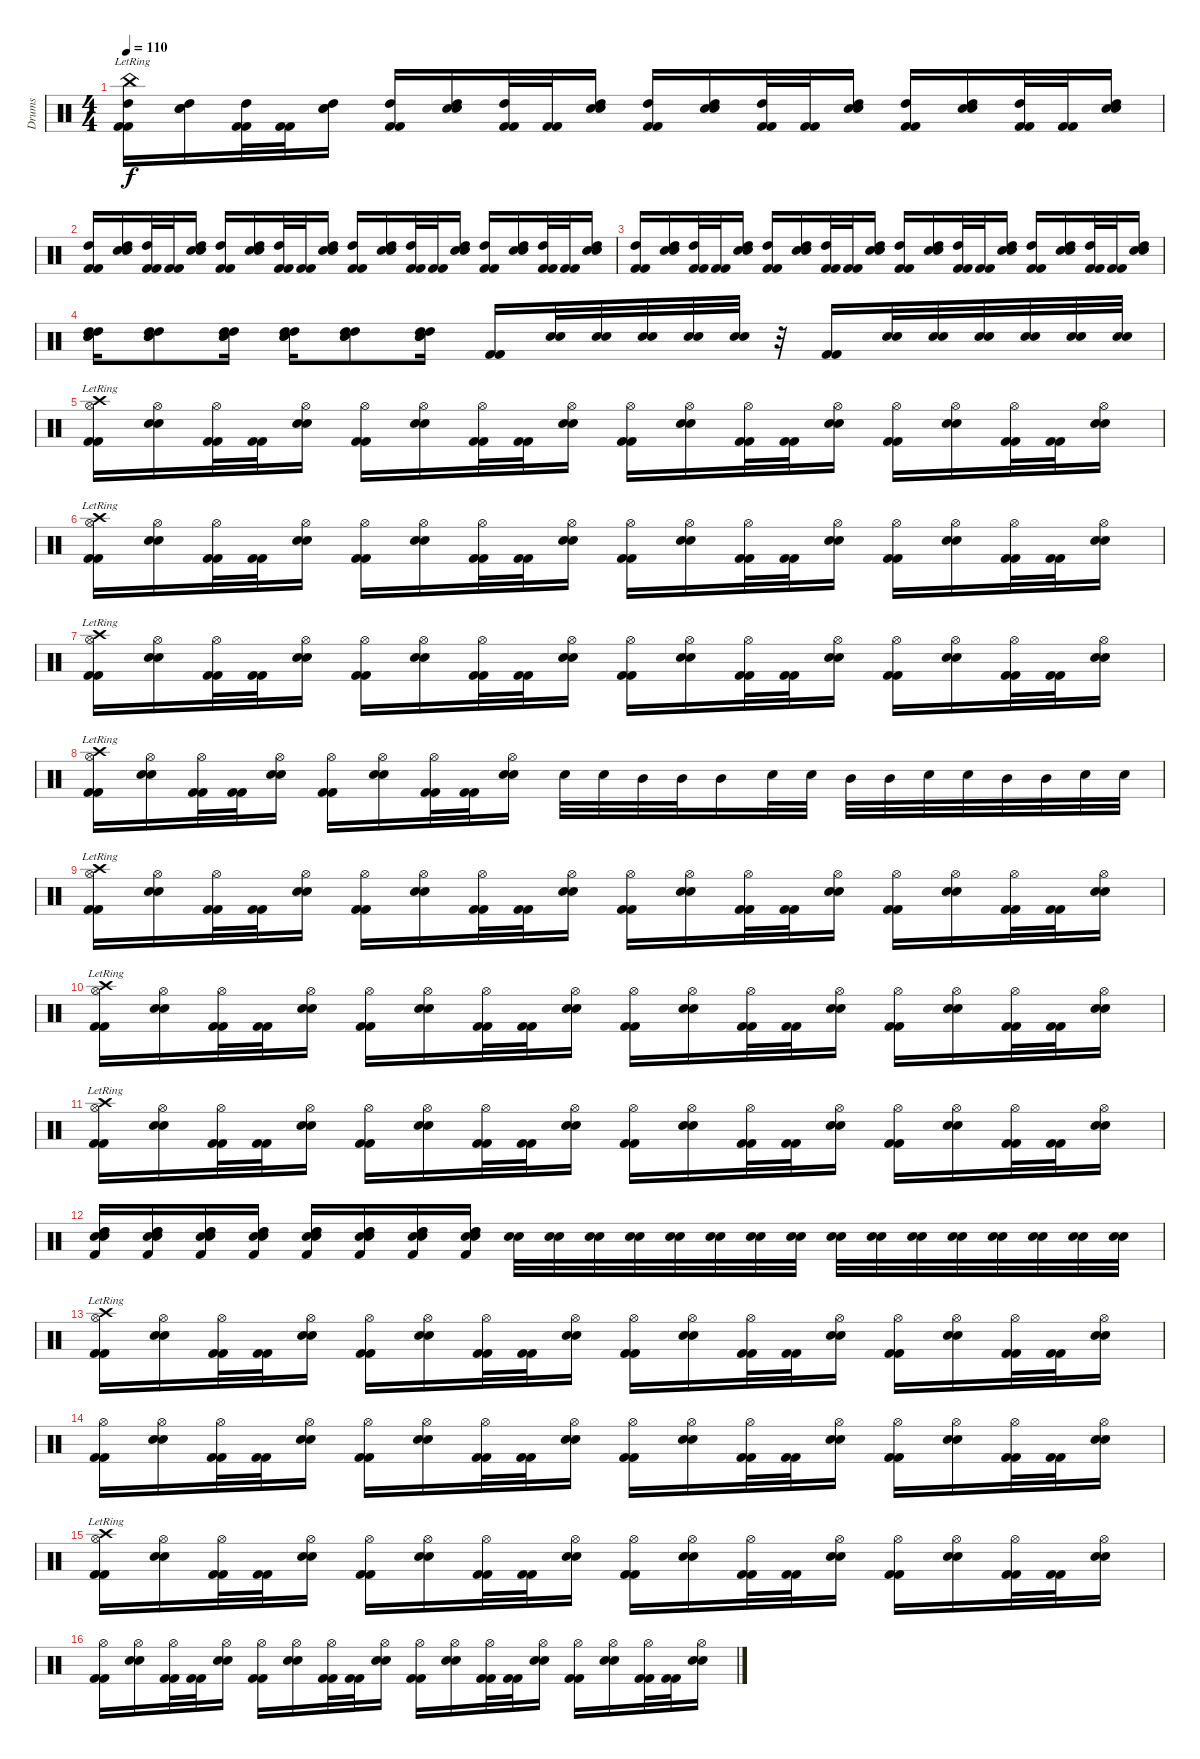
\track ("Drums" "Drums") {instrument percussion}
\staff {score}
\articulation defaults
\ts (4 4)
\tempo 110
\clef neutral
\ks c
("Kick (hit) 2" "Kick (hit) 2" "High Tom (hit)" "China (hit)"{lr}).16{dy f} ("Snare (hit) 2" "Snare (hit) 2" "High Tom (hit)").16 ("Kick (hit) 2" "Kick (hit) 2" "High Tom (hit)").32 ("Kick (hit) 2" "Kick (hit) 2").32 ("Snare (hit) 2" "Snare (hit) 2" "High Tom (hit)").16 ("Kick (hit) 2" "Kick (hit) 2" "High Tom (hit)").16 ("Snare (hit) 2" "Snare (hit) 2" "High Tom (hit)").16 ("Kick (hit) 2" "Kick (hit) 2" "High Tom (hit)").32 ("Kick (hit) 2" "Kick (hit) 2").32 ("Snare (hit) 2" "Snare (hit) 2" "High Tom (hit)").16 ("Kick (hit) 2" "Kick (hit) 2" "High Tom (hit)").16 ("Snare (hit) 2" "Snare (hit) 2" "High Tom (hit)").16 ("Kick (hit) 2" "Kick (hit) 2" "High Tom (hit)").32 ("Kick (hit) 2" "Kick (hit) 2").32 ("Snare (hit) 2" "Snare (hit) 2" "High Tom (hit)").16 ("Kick (hit) 2" "Kick (hit) 2" "High Tom (hit)").16 ("Snare (hit) 2" "Snare (hit) 2" "High Tom (hit)").16 ("Kick (hit) 2" "Kick (hit) 2" "High Tom (hit)").32 ("Kick (hit) 2" "Kick (hit) 2").32 ("Snare (hit) 2" "Snare (hit) 2" "High Tom (hit)").16 |
("Kick (hit) 2" "Kick (hit) 2" "High Tom (hit)").16 ("Snare (hit) 2" "Snare (hit) 2" "High Tom (hit)").16 ("Kick (hit) 2" "Kick (hit) 2" "High Tom (hit)").32 ("Kick (hit) 2" "Kick (hit) 2").32 ("Snare (hit) 2" "Snare (hit) 2" "High Tom (hit)").16 ("Kick (hit) 2" "Kick (hit) 2" "High Tom (hit)").16 ("Snare (hit) 2" "Snare (hit) 2" "High Tom (hit)").16 ("Kick (hit) 2" "Kick (hit) 2" "High Tom (hit)").32 ("Kick (hit) 2" "Kick (hit) 2").32 ("Snare (hit) 2" "Snare (hit) 2" "High Tom (hit)").16 ("Kick (hit) 2" "Kick (hit) 2" "High Tom (hit)").16 ("Snare (hit) 2" "Snare (hit) 2" "High Tom (hit)").16 ("Kick (hit) 2" "Kick (hit) 2" "High Tom (hit)").32 ("Kick (hit) 2" "Kick (hit) 2").32 ("Snare (hit) 2" "Snare (hit) 2" "High Tom (hit)").16 ("Kick (hit) 2" "Kick (hit) 2" "High Tom (hit)").16 ("Snare (hit) 2" "Snare (hit) 2" "High Tom (hit)").16 ("Kick (hit) 2" "Kick (hit) 2" "High Tom (hit)").32 ("Kick (hit) 2" "Kick (hit) 2").32 ("Snare (hit) 2" "Snare (hit) 2" "High Tom (hit)").16 |
("Kick (hit) 2" "Kick (hit) 2" "High Tom (hit)").16 ("Snare (hit) 2" "Snare (hit) 2" "High Tom (hit)").16 ("Kick (hit) 2" "Kick (hit) 2" "High Tom (hit)").32 ("Kick (hit) 2" "Kick (hit) 2").32 ("Snare (hit) 2" "Snare (hit) 2" "High Tom (hit)").16 ("Kick (hit) 2" "Kick (hit) 2" "High Tom (hit)").16 ("Snare (hit) 2" "Snare (hit) 2" "High Tom (hit)").16 ("Kick (hit) 2" "Kick (hit) 2" "High Tom (hit)").32 ("Kick (hit) 2" "Kick (hit) 2").32 ("Snare (hit) 2" "Snare (hit) 2" "High Tom (hit)").16 ("Kick (hit) 2" "Kick (hit) 2" "High Tom (hit)").16 ("Snare (hit) 2" "Snare (hit) 2" "High Tom (hit)").16 ("Kick (hit) 2" "Kick (hit) 2" "High Tom (hit)").32 ("Kick (hit) 2" "Kick (hit) 2").32 ("Snare (hit) 2" "Snare (hit) 2" "High Tom (hit)").16 ("Kick (hit) 2" "Kick (hit) 2" "High Tom (hit)").16 ("Snare (hit) 2" "Snare (hit) 2" "High Tom (hit)").16 ("Kick (hit) 2" "Kick (hit) 2" "High Tom (hit)").32 ("Kick (hit) 2" "Kick (hit) 2").32 ("Snare (hit) 2" "Snare (hit) 2" "High Tom (hit)").16 |
("Snare (hit) 2" "Snare (hit) 2" "High Tom (hit)" "High Tom (hit)").16 ("Snare (hit) 2" "Snare (hit) 2" "High Tom (hit)" "High Tom (hit)").8 ("Snare (hit) 2" "Snare (hit) 2" "High Tom (hit)" "High Tom (hit)").16 ("Snare (hit) 2" "Snare (hit) 2" "High Tom (hit)" "High Tom (hit)").16 ("Snare (hit) 2" "Snare (hit) 2" "High Tom (hit)" "High Tom (hit)").8 ("Snare (hit) 2" "Snare (hit) 2" "High Tom (hit)" "High Tom (hit)").16 ("Kick (hit) 2" "Kick (hit) 2").16 ("Snare (hit) 2" "Snare (hit) 2").32 ("Snare (hit) 2" "Snare (hit) 2").32 ("Snare (hit) 2" "Snare (hit) 2").32 ("Snare (hit) 2" "Snare (hit) 2").32 ("Snare (hit) 2" "Snare (hit) 2").32 r.32 ("Kick (hit) 2" "Kick (hit) 2").16 ("Snare (hit) 2" "Snare (hit) 2").32 ("Snare (hit) 2" "Snare (hit) 2").32 ("Snare (hit) 2" "Snare (hit) 2").32 ("Snare (hit) 2" "Snare (hit) 2").32 ("Snare (hit) 2" "Snare (hit) 2").32 ("Snare (hit) 2" "Snare (hit) 2").32 |
("Kick (hit) 2" "Kick (hit) 2" "Hi-Hat (open)" "Crash high (hit)"{lr}).16 ("Snare (hit) 2" "Snare (hit) 2" "Hi-Hat (open)").16 ("Kick (hit) 2" "Kick (hit) 2" "Hi-Hat (open)").32 ("Kick (hit) 2" "Kick (hit) 2").32 ("Snare (hit) 2" "Snare (hit) 2" "Hi-Hat (open)").16 ("Kick (hit) 2" "Kick (hit) 2" "Hi-Hat (open)").16 ("Snare (hit) 2" "Snare (hit) 2" "Hi-Hat (open)").16 ("Kick (hit) 2" "Kick (hit) 2" "Hi-Hat (open)").32 ("Kick (hit) 2" "Kick (hit) 2").32 ("Snare (hit) 2" "Snare (hit) 2" "Hi-Hat (open)").16 ("Kick (hit) 2" "Kick (hit) 2" "Hi-Hat (open)").16 ("Snare (hit) 2" "Snare (hit) 2" "Hi-Hat (open)").16 ("Kick (hit) 2" "Kick (hit) 2" "Hi-Hat (open)").32 ("Kick (hit) 2" "Kick (hit) 2").32 ("Snare (hit) 2" "Snare (hit) 2" "Hi-Hat (open)").16 ("Kick (hit) 2" "Kick (hit) 2" "Hi-Hat (open)").16 ("Snare (hit) 2" "Snare (hit) 2" "Hi-Hat (open)").16 ("Kick (hit) 2" "Kick (hit) 2" "Hi-Hat (open)").32 ("Kick (hit) 2" "Kick (hit) 2").32 ("Snare (hit) 2" "Snare (hit) 2" "Hi-Hat (open)").16 |
("Kick (hit) 2" "Kick (hit) 2" "Hi-Hat (open)" "Crash high (hit)"{lr}).16 ("Snare (hit) 2" "Snare (hit) 2" "Hi-Hat (open)").16 ("Kick (hit) 2" "Kick (hit) 2" "Hi-Hat (open)").32 ("Kick (hit) 2" "Kick (hit) 2").32 ("Snare (hit) 2" "Snare (hit) 2" "Hi-Hat (open)").16 ("Kick (hit) 2" "Kick (hit) 2" "Hi-Hat (open)").16 ("Snare (hit) 2" "Snare (hit) 2" "Hi-Hat (open)").16 ("Kick (hit) 2" "Kick (hit) 2" "Hi-Hat (open)").32 ("Kick (hit) 2" "Kick (hit) 2").32 ("Snare (hit) 2" "Snare (hit) 2" "Hi-Hat (open)").16 ("Kick (hit) 2" "Kick (hit) 2" "Hi-Hat (open)").16 ("Snare (hit) 2" "Snare (hit) 2" "Hi-Hat (open)").16 ("Kick (hit) 2" "Kick (hit) 2" "Hi-Hat (open)").32 ("Kick (hit) 2" "Kick (hit) 2").32 ("Snare (hit) 2" "Snare (hit) 2" "Hi-Hat (open)").16 ("Kick (hit) 2" "Kick (hit) 2" "Hi-Hat (open)").16 ("Snare (hit) 2" "Snare (hit) 2" "Hi-Hat (open)").16 ("Kick (hit) 2" "Kick (hit) 2" "Hi-Hat (open)").32 ("Kick (hit) 2" "Kick (hit) 2").32 ("Snare (hit) 2" "Snare (hit) 2" "Hi-Hat (open)").16 |
("Kick (hit) 2" "Kick (hit) 2" "Hi-Hat (open)" "Crash high (hit)"{lr}).16 ("Snare (hit) 2" "Snare (hit) 2" "Hi-Hat (open)").16 ("Kick (hit) 2" "Kick (hit) 2" "Hi-Hat (open)").32 ("Kick (hit) 2" "Kick (hit) 2").32 ("Snare (hit) 2" "Snare (hit) 2" "Hi-Hat (open)").16 ("Kick (hit) 2" "Kick (hit) 2" "Hi-Hat (open)").16 ("Snare (hit) 2" "Snare (hit) 2" "Hi-Hat (open)").16 ("Kick (hit) 2" "Kick (hit) 2" "Hi-Hat (open)").32 ("Kick (hit) 2" "Kick (hit) 2").32 ("Snare (hit) 2" "Snare (hit) 2" "Hi-Hat (open)").16 ("Kick (hit) 2" "Kick (hit) 2" "Hi-Hat (open)").16 ("Snare (hit) 2" "Snare (hit) 2" "Hi-Hat (open)").16 ("Kick (hit) 2" "Kick (hit) 2" "Hi-Hat (open)").32 ("Kick (hit) 2" "Kick (hit) 2").32 ("Snare (hit) 2" "Snare (hit) 2" "Hi-Hat (open)").16 ("Kick (hit) 2" "Kick (hit) 2" "Hi-Hat (open)").16 ("Snare (hit) 2" "Snare (hit) 2" "Hi-Hat (open)").16 ("Kick (hit) 2" "Kick (hit) 2" "Hi-Hat (open)").32 ("Kick (hit) 2" "Kick (hit) 2").32 ("Snare (hit) 2" "Snare (hit) 2" "Hi-Hat (open)").16 |
("Kick (hit) 2" "Kick (hit) 2" "Hi-Hat (open)" "Crash high (hit)"{lr}).16 ("Snare (hit) 2" "Snare (hit) 2" "Hi-Hat (open)").16 ("Kick (hit) 2" "Kick (hit) 2" "Hi-Hat (open)").32 ("Kick (hit) 2" "Kick (hit) 2").32 ("Snare (hit) 2" "Snare (hit) 2" "Hi-Hat (open)").16 ("Kick (hit) 2" "Kick (hit) 2" "Hi-Hat (open)").16 ("Snare (hit) 2" "Snare (hit) 2" "Hi-Hat (open)").16 ("Kick (hit) 2" "Kick (hit) 2" "Hi-Hat (open)").32 ("Kick (hit) 2" "Kick (hit) 2").32 ("Snare (hit) 2" "Snare (hit) 2" "Hi-Hat (open)").16 "Snare (hit) 2".32 "Snare (hit) 2".32 "Mid Tom (hit)".32 "Mid Tom (hit)".32 "Mid Tom (hit)".16 "Snare (hit) 2".32 "Snare (hit) 2".32 "Mid Tom (hit)".32 "Mid Tom (hit)".32 "Snare (hit) 2".32 "Snare (hit) 2".32 "Mid Tom (hit)".32 "Mid Tom (hit)".32 "Snare (hit) 2".32 "Snare (hit) 2".32 |
("Kick (hit) 2" "Kick (hit) 2" "Hi-Hat (open)" "Crash high (hit)"{lr}).16 ("Snare (hit) 2" "Snare (hit) 2" "Hi-Hat (open)").16 ("Kick (hit) 2" "Kick (hit) 2" "Hi-Hat (open)").32 ("Kick (hit) 2" "Kick (hit) 2").32 ("Snare (hit) 2" "Snare (hit) 2" "Hi-Hat (open)").16 ("Kick (hit) 2" "Kick (hit) 2" "Hi-Hat (open)").16 ("Snare (hit) 2" "Snare (hit) 2" "Hi-Hat (open)").16 ("Kick (hit) 2" "Kick (hit) 2" "Hi-Hat (open)").32 ("Kick (hit) 2" "Kick (hit) 2").32 ("Snare (hit) 2" "Snare (hit) 2" "Hi-Hat (open)").16 ("Kick (hit) 2" "Kick (hit) 2" "Hi-Hat (open)").16 ("Snare (hit) 2" "Snare (hit) 2" "Hi-Hat (open)").16 ("Kick (hit) 2" "Kick (hit) 2" "Hi-Hat (open)").32 ("Kick (hit) 2" "Kick (hit) 2").32 ("Snare (hit) 2" "Snare (hit) 2" "Hi-Hat (open)").16 ("Kick (hit) 2" "Kick (hit) 2" "Hi-Hat (open)").16 ("Snare (hit) 2" "Snare (hit) 2" "Hi-Hat (open)").16 ("Kick (hit) 2" "Kick (hit) 2" "Hi-Hat (open)").32 ("Kick (hit) 2" "Kick (hit) 2").32 ("Snare (hit) 2" "Snare (hit) 2" "Hi-Hat (open)").16 |
("Kick (hit) 2" "Kick (hit) 2" "Hi-Hat (open)" "Crash high (hit)"{lr}).16 ("Snare (hit) 2" "Snare (hit) 2" "Hi-Hat (open)").16 ("Kick (hit) 2" "Kick (hit) 2" "Hi-Hat (open)").32 ("Kick (hit) 2" "Kick (hit) 2").32 ("Snare (hit) 2" "Snare (hit) 2" "Hi-Hat (open)").16 ("Kick (hit) 2" "Kick (hit) 2" "Hi-Hat (open)").16 ("Snare (hit) 2" "Snare (hit) 2" "Hi-Hat (open)").16 ("Kick (hit) 2" "Kick (hit) 2" "Hi-Hat (open)").32 ("Kick (hit) 2" "Kick (hit) 2").32 ("Snare (hit) 2" "Snare (hit) 2" "Hi-Hat (open)").16 ("Kick (hit) 2" "Kick (hit) 2" "Hi-Hat (open)").16 ("Snare (hit) 2" "Snare (hit) 2" "Hi-Hat (open)").16 ("Kick (hit) 2" "Kick (hit) 2" "Hi-Hat (open)").32 ("Kick (hit) 2" "Kick (hit) 2").32 ("Snare (hit) 2" "Snare (hit) 2" "Hi-Hat (open)").16 ("Kick (hit) 2" "Kick (hit) 2" "Hi-Hat (open)").16 ("Snare (hit) 2" "Snare (hit) 2" "Hi-Hat (open)").16 ("Kick (hit) 2" "Kick (hit) 2" "Hi-Hat (open)").32 ("Kick (hit) 2" "Kick (hit) 2").32 ("Snare (hit) 2" "Snare (hit) 2" "Hi-Hat (open)").16 |
("Kick (hit) 2" "Kick (hit) 2" "Hi-Hat (open)" "Crash high (hit)"{lr}).16 ("Snare (hit) 2" "Snare (hit) 2" "Hi-Hat (open)").16 ("Kick (hit) 2" "Kick (hit) 2" "Hi-Hat (open)").32 ("Kick (hit) 2" "Kick (hit) 2").32 ("Snare (hit) 2" "Snare (hit) 2" "Hi-Hat (open)").16 ("Kick (hit) 2" "Kick (hit) 2" "Hi-Hat (open)").16 ("Snare (hit) 2" "Snare (hit) 2" "Hi-Hat (open)").16 ("Kick (hit) 2" "Kick (hit) 2" "Hi-Hat (open)").32 ("Kick (hit) 2" "Kick (hit) 2").32 ("Snare (hit) 2" "Snare (hit) 2" "Hi-Hat (open)").16 ("Kick (hit) 2" "Kick (hit) 2" "Hi-Hat (open)").16 ("Snare (hit) 2" "Snare (hit) 2" "Hi-Hat (open)").16 ("Kick (hit) 2" "Kick (hit) 2" "Hi-Hat (open)").32 ("Kick (hit) 2" "Kick (hit) 2").32 ("Snare (hit) 2" "Snare (hit) 2" "Hi-Hat (open)").16 ("Kick (hit) 2" "Kick (hit) 2" "Hi-Hat (open)").16 ("Snare (hit) 2" "Snare (hit) 2" "Hi-Hat (open)").16 ("Kick (hit) 2" "Kick (hit) 2" "Hi-Hat (open)").32 ("Kick (hit) 2" "Kick (hit) 2").32 ("Snare (hit) 2" "Snare (hit) 2" "Hi-Hat (open)").16 |
("Snare (hit) 2" "Snare (hit) 2" "High Tom (hit)" "High Tom (hit)" "Kick (hit) 2").16 ("Snare (hit) 2" "Snare (hit) 2" "High Tom (hit)" "High Tom (hit)" "Kick (hit) 2").16 ("Snare (hit) 2" "Snare (hit) 2" "High Tom (hit)" "High Tom (hit)" "Kick (hit) 2").16 ("Snare (hit) 2" "Snare (hit) 2" "High Tom (hit)" "High Tom (hit)" "Kick (hit) 2").16 ("Snare (hit) 2" "Snare (hit) 2" "High Tom (hit)" "High Tom (hit)" "Kick (hit) 2").16 ("Snare (hit) 2" "Snare (hit) 2" "High Tom (hit)" "High Tom (hit)" "Kick (hit) 2").16 ("Snare (hit) 2" "Snare (hit) 2" "High Tom (hit)" "High Tom (hit)" "Kick (hit) 2").16 ("Snare (hit) 2" "Snare (hit) 2" "High Tom (hit)" "High Tom (hit)" "Kick (hit) 2").16 ("Snare (hit) 2" "Snare (hit) 2").32 ("Snare (hit) 2" "Snare (hit) 2").32 ("Snare (hit) 2" "Snare (hit) 2").32 ("Snare (hit) 2" "Snare (hit) 2").32 ("Snare (hit) 2" "Snare (hit) 2").32 ("Snare (hit) 2" "Snare (hit) 2").32 ("Snare (hit) 2" "Snare (hit) 2").32 ("Snare (hit) 2" "Snare (hit) 2").32 ("Snare (hit) 2" "Snare (hit) 2").32 ("Snare (hit) 2" "Snare (hit) 2").32 ("Snare (hit) 2" "Snare (hit) 2").32 ("Snare (hit) 2" "Snare (hit) 2").32 ("Snare (hit) 2" "Snare (hit) 2").32 ("Snare (hit) 2" "Snare (hit) 2").32 ("Snare (hit) 2" "Snare (hit) 2").32 ("Snare (hit) 2" "Snare (hit) 2").32 |
("Kick (hit) 2" "Kick (hit) 2" "Hi-Hat (open)" "Crash high (hit)"{lr}).16 ("Snare (hit) 2" "Snare (hit) 2" "Hi-Hat (open)").16 ("Kick (hit) 2" "Kick (hit) 2" "Hi-Hat (open)").32 ("Kick (hit) 2" "Kick (hit) 2").32 ("Snare (hit) 2" "Snare (hit) 2" "Hi-Hat (open)").16 ("Kick (hit) 2" "Kick (hit) 2" "Hi-Hat (open)").16 ("Snare (hit) 2" "Snare (hit) 2" "Hi-Hat (open)").16 ("Kick (hit) 2" "Kick (hit) 2" "Hi-Hat (open)").32 ("Kick (hit) 2" "Kick (hit) 2").32 ("Snare (hit) 2" "Snare (hit) 2" "Hi-Hat (open)").16 ("Kick (hit) 2" "Kick (hit) 2" "Hi-Hat (open)").16 ("Snare (hit) 2" "Snare (hit) 2" "Hi-Hat (open)").16 ("Kick (hit) 2" "Kick (hit) 2" "Hi-Hat (open)").32 ("Kick (hit) 2" "Kick (hit) 2").32 ("Snare (hit) 2" "Snare (hit) 2" "Hi-Hat (open)").16 ("Kick (hit) 2" "Kick (hit) 2" "Hi-Hat (open)").16 ("Snare (hit) 2" "Snare (hit) 2" "Hi-Hat (open)").16 ("Kick (hit) 2" "Kick (hit) 2" "Hi-Hat (open)").32 ("Kick (hit) 2" "Kick (hit) 2").32 ("Snare (hit) 2" "Snare (hit) 2" "Hi-Hat (open)").16 |
("Kick (hit) 2" "Kick (hit) 2" "Hi-Hat (open)").16 ("Snare (hit) 2" "Snare (hit) 2" "Hi-Hat (open)").16 ("Kick (hit) 2" "Kick (hit) 2" "Hi-Hat (open)").32 ("Kick (hit) 2" "Kick (hit) 2").32 ("Snare (hit) 2" "Snare (hit) 2" "Hi-Hat (open)").16 ("Kick (hit) 2" "Kick (hit) 2" "Hi-Hat (open)").16 ("Snare (hit) 2" "Snare (hit) 2" "Hi-Hat (open)").16 ("Kick (hit) 2" "Kick (hit) 2" "Hi-Hat (open)").32 ("Kick (hit) 2" "Kick (hit) 2").32 ("Snare (hit) 2" "Snare (hit) 2" "Hi-Hat (open)").16 ("Kick (hit) 2" "Kick (hit) 2" "Hi-Hat (open)").16 ("Snare (hit) 2" "Snare (hit) 2" "Hi-Hat (open)").16 ("Kick (hit) 2" "Kick (hit) 2" "Hi-Hat (open)").32 ("Kick (hit) 2" "Kick (hit) 2").32 ("Snare (hit) 2" "Snare (hit) 2" "Hi-Hat (open)").16 ("Kick (hit) 2" "Kick (hit) 2" "Hi-Hat (open)").16 ("Snare (hit) 2" "Snare (hit) 2" "Hi-Hat (open)").16 ("Kick (hit) 2" "Kick (hit) 2" "Hi-Hat (open)").32 ("Kick (hit) 2" "Kick (hit) 2").32 ("Snare (hit) 2" "Snare (hit) 2" "Hi-Hat (open)").16 |
("Kick (hit) 2" "Kick (hit) 2" "Hi-Hat (open)" "Crash high (hit)"{lr}).16 ("Snare (hit) 2" "Snare (hit) 2" "Hi-Hat (open)").16 ("Kick (hit) 2" "Kick (hit) 2" "Hi-Hat (open)").32 ("Kick (hit) 2" "Kick (hit) 2").32 ("Snare (hit) 2" "Snare (hit) 2" "Hi-Hat (open)").16 ("Kick (hit) 2" "Kick (hit) 2" "Hi-Hat (open)").16 ("Snare (hit) 2" "Snare (hit) 2" "Hi-Hat (open)").16 ("Kick (hit) 2" "Kick (hit) 2" "Hi-Hat (open)").32 ("Kick (hit) 2" "Kick (hit) 2").32 ("Snare (hit) 2" "Snare (hit) 2" "Hi-Hat (open)").16 ("Kick (hit) 2" "Kick (hit) 2" "Hi-Hat (open)").16 ("Snare (hit) 2" "Snare (hit) 2" "Hi-Hat (open)").16 ("Kick (hit) 2" "Kick (hit) 2" "Hi-Hat (open)").32 ("Kick (hit) 2" "Kick (hit) 2").32 ("Snare (hit) 2" "Snare (hit) 2" "Hi-Hat (open)").16 ("Kick (hit) 2" "Kick (hit) 2" "Hi-Hat (open)").16 ("Snare (hit) 2" "Snare (hit) 2" "Hi-Hat (open)").16 ("Kick (hit) 2" "Kick (hit) 2" "Hi-Hat (open)").32 ("Kick (hit) 2" "Kick (hit) 2").32 ("Snare (hit) 2" "Snare (hit) 2" "Hi-Hat (open)").16 |
("Kick (hit) 2" "Kick (hit) 2" "Hi-Hat (open)").16 ("Snare (hit) 2" "Snare (hit) 2" "Hi-Hat (open)").16 ("Kick (hit) 2" "Kick (hit) 2" "Hi-Hat (open)").32 ("Kick (hit) 2" "Kick (hit) 2").32 ("Snare (hit) 2" "Snare (hit) 2" "Hi-Hat (open)").16 ("Kick (hit) 2" "Kick (hit) 2" "Hi-Hat (open)").16 ("Snare (hit) 2" "Snare (hit) 2" "Hi-Hat (open)").16 ("Kick (hit) 2" "Kick (hit) 2" "Hi-Hat (open)").32 ("Kick (hit) 2" "Kick (hit) 2").32 ("Snare (hit) 2" "Snare (hit) 2" "Hi-Hat (open)").16 ("Kick (hit) 2" "Kick (hit) 2" "Hi-Hat (open)").16 ("Snare (hit) 2" "Snare (hit) 2" "Hi-Hat (open)").16 ("Kick (hit) 2" "Kick (hit) 2" "Hi-Hat (open)").32 ("Kick (hit) 2" "Kick (hit) 2").32 ("Snare (hit) 2" "Snare (hit) 2" "Hi-Hat (open)").16 ("Kick (hit) 2" "Kick (hit) 2" "Hi-Hat (open)").16 ("Snare (hit) 2" "Snare (hit) 2" "Hi-Hat (open)").16 ("Kick (hit) 2" "Kick (hit) 2" "Hi-Hat (open)").32 ("Kick (hit) 2" "Kick (hit) 2").32 ("Snare (hit) 2" "Snare (hit) 2" "Hi-Hat (open)").16
